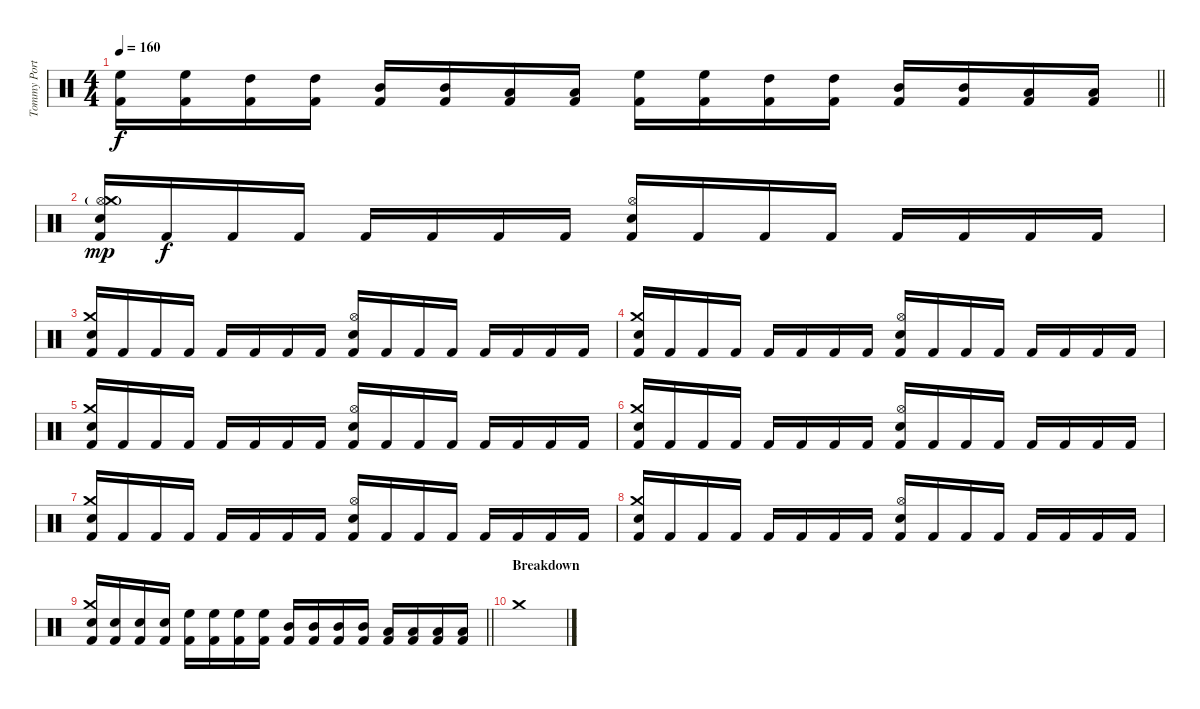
\track ("Tommy Portino" "Tommy Port") {instrument percussion}
\staff {score}
\articulation defaults
\ts (4 4)
\tempo 160
\clef neutral
\barLineRight lightlight
\ks c
("High Floor Tom (hit)" "Kick (hit) 2").16{dy f} ("High Floor Tom (hit)" "Kick (hit) 2").16 ("High Tom (hit)" "Kick (hit) 2").16 ("High Tom (hit)" "Kick (hit) 2").16 ("Mid Tom (hit)" "Kick (hit) 2").16 ("Mid Tom (hit)" "Kick (hit) 2").16 ("Low Tom (hit)" "Kick (hit) 2").16 ("Low Tom (hit)" "Kick (hit) 2").16 ("High Floor Tom (hit)" "Kick (hit) 2").16 ("High Floor Tom (hit)" "Kick (hit) 2").16 ("High Tom (hit)" "Kick (hit) 2").16 ("High Tom (hit)" "Kick (hit) 2").16 ("Mid Tom (hit)" "Kick (hit) 2").16 ("Mid Tom (hit)" "Kick (hit) 2").16 ("Low Tom (hit)" "Kick (hit) 2").16 ("Low Tom (hit)" "Kick (hit) 2").16 |
("Hi-Hat (open)"{g} "Crash medium (hit)" "Snare (hit) 2" "Kick (hit) 2").16{dy mp} "Kick (hit) 2".16{dy f} "Kick (hit) 2".16 "Kick (hit) 2".16 "Kick (hit) 2".16 "Kick (hit) 2".16 "Kick (hit) 2".16 "Kick (hit) 2".16 ("Hi-Hat (open)" "Snare (hit) 2" "Kick (hit) 2").16 "Kick (hit) 2".16 "Kick (hit) 2".16 "Kick (hit) 2".16 "Kick (hit) 2".16 "Kick (hit) 2".16 "Kick (hit) 2".16 "Kick (hit) 2".16 |
("Crash medium (hit)" "Snare (hit) 2" "Kick (hit) 2").16 "Kick (hit) 2".16 "Kick (hit) 2".16 "Kick (hit) 2".16 "Kick (hit) 2".16 "Kick (hit) 2".16 "Kick (hit) 2".16 "Kick (hit) 2".16 ("Hi-Hat (open)" "Snare (hit) 2" "Kick (hit) 2").16 "Kick (hit) 2".16 "Kick (hit) 2".16 "Kick (hit) 2".16 "Kick (hit) 2".16 "Kick (hit) 2".16 "Kick (hit) 2".16 "Kick (hit) 2".16 |
("Crash medium (hit)" "Snare (hit) 2" "Kick (hit) 2").16 "Kick (hit) 2".16 "Kick (hit) 2".16 "Kick (hit) 2".16 "Kick (hit) 2".16 "Kick (hit) 2".16 "Kick (hit) 2".16 "Kick (hit) 2".16 ("Hi-Hat (open)" "Snare (hit) 2" "Kick (hit) 2").16 "Kick (hit) 2".16 "Kick (hit) 2".16 "Kick (hit) 2".16 "Kick (hit) 2".16 "Kick (hit) 2".16 "Kick (hit) 2".16 "Kick (hit) 2".16 |
("Crash medium (hit)" "Snare (hit) 2" "Kick (hit) 2").16 "Kick (hit) 2".16 "Kick (hit) 2".16 "Kick (hit) 2".16 "Kick (hit) 2".16 "Kick (hit) 2".16 "Kick (hit) 2".16 "Kick (hit) 2".16 ("Hi-Hat (open)" "Snare (hit) 2" "Kick (hit) 2").16 "Kick (hit) 2".16 "Kick (hit) 2".16 "Kick (hit) 2".16 "Kick (hit) 2".16 "Kick (hit) 2".16 "Kick (hit) 2".16 "Kick (hit) 2".16 |
("Crash medium (hit)" "Snare (hit) 2" "Kick (hit) 2").16 "Kick (hit) 2".16 "Kick (hit) 2".16 "Kick (hit) 2".16 "Kick (hit) 2".16 "Kick (hit) 2".16 "Kick (hit) 2".16 "Kick (hit) 2".16 ("Hi-Hat (open)" "Snare (hit) 2" "Kick (hit) 2").16 "Kick (hit) 2".16 "Kick (hit) 2".16 "Kick (hit) 2".16 "Kick (hit) 2".16 "Kick (hit) 2".16 "Kick (hit) 2".16 "Kick (hit) 2".16 |
("Crash medium (hit)" "Snare (hit) 2" "Kick (hit) 2").16 "Kick (hit) 2".16 "Kick (hit) 2".16 "Kick (hit) 2".16 "Kick (hit) 2".16 "Kick (hit) 2".16 "Kick (hit) 2".16 "Kick (hit) 2".16 ("Hi-Hat (open)" "Snare (hit) 2" "Kick (hit) 2").16 "Kick (hit) 2".16 "Kick (hit) 2".16 "Kick (hit) 2".16 "Kick (hit) 2".16 "Kick (hit) 2".16 "Kick (hit) 2".16 "Kick (hit) 2".16 |
("Crash medium (hit)" "Snare (hit) 2" "Kick (hit) 2").16 "Kick (hit) 2".16 "Kick (hit) 2".16 "Kick (hit) 2".16 "Kick (hit) 2".16 "Kick (hit) 2".16 "Kick (hit) 2".16 "Kick (hit) 2".16 ("Hi-Hat (open)" "Snare (hit) 2" "Kick (hit) 2").16 "Kick (hit) 2".16 "Kick (hit) 2".16 "Kick (hit) 2".16 "Kick (hit) 2".16 "Kick (hit) 2".16 "Kick (hit) 2".16 "Kick (hit) 2".16 |
\barLineRight lightlight
("Crash medium (hit)" "Snare (hit) 2" "Kick (hit) 2").16 ("Snare (hit) 2" "Kick (hit) 2").16 ("Snare (hit) 2" "Kick (hit) 2").16 ("Snare (hit) 2" "Kick (hit) 2").16 ("High Floor Tom (hit)" "Kick (hit) 2").16 ("High Floor Tom (hit)" "Kick (hit) 2").16 ("High Floor Tom (hit)" "Kick (hit) 2").16 ("High Floor Tom (hit)" "Kick (hit) 2").16 ("Mid Tom (hit)" "Kick (hit) 2").16 ("Mid Tom (hit)" "Kick (hit) 2").16 ("Mid Tom (hit)" "Kick (hit) 2").16 ("Mid Tom (hit)" "Kick (hit) 2").16 ("Low Tom (hit)" "Kick (hit) 2").16 ("Low Tom (hit)" "Kick (hit) 2").16 ("Low Tom (hit)" "Kick (hit) 2").16 ("Low Tom (hit)" "Kick (hit) 2").16 |
\section ("" "Breakdown")
"Crash medium (hit)".1
